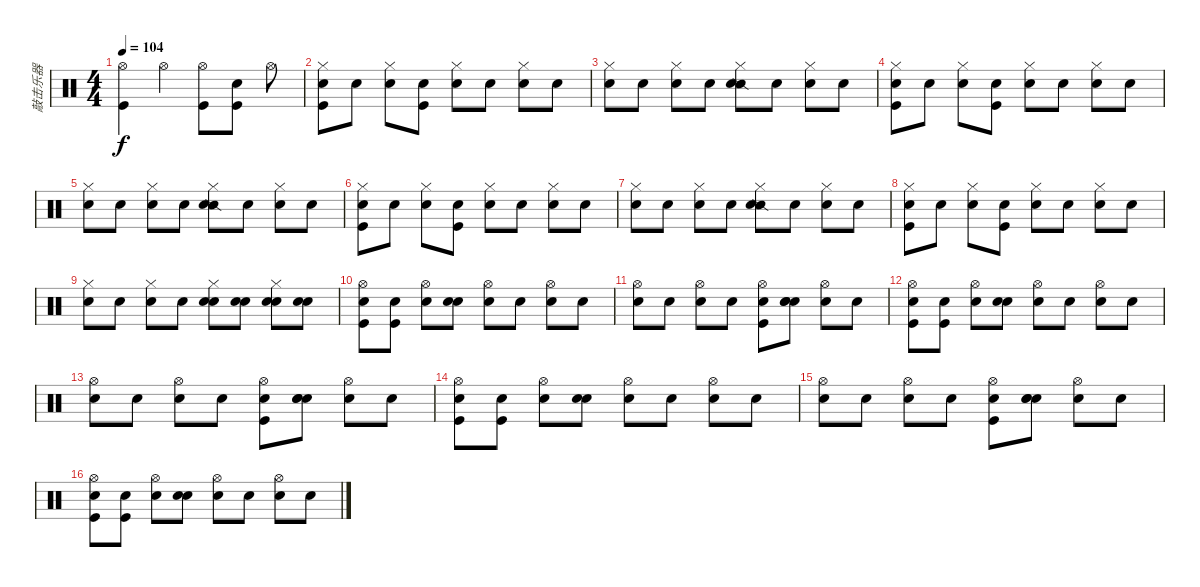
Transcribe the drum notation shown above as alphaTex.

\track ("敲击乐器" "敲击乐器") {instrument percussion}
\staff {score}
\articulation defaults
\ts (4 4)
\tempo 104
\clef neutral
\ks c
("Hi-Hat (open)" "Kick (hit)").4{dy f} "Hi-Hat (open)".4 ("Hi-Hat (open)" "Kick (hit)").8 ("Snare (hit) 2" "Kick (hit)").8 "Hi-Hat (open)".8 |
("Hi-Hat (closed)" "Snare (hit)" "Kick (hit)").8 "Snare (hit)".8 ("Hi-Hat (closed)" "Snare (hit)").8 ("Snare (hit)" "Kick (hit)").8 ("Hi-Hat (closed)" "Snare (hit)").8 "Snare (hit)".8 ("Hi-Hat (closed)" "Snare (hit)").8 "Snare (hit)".8 |
("Hi-Hat (closed)" "Snare (hit)").8 "Snare (hit)".8 ("Hi-Hat (closed)" "Snare (hit)").8 "Snare (hit)".8 ("Snare (side stick) 2" "Hi-Hat (closed)" "Snare (hit)").8 "Snare (hit)".8 ("Hi-Hat (closed)" "Snare (hit)").8 "Snare (hit)".8 |
("Hi-Hat (closed)" "Snare (hit)" "Kick (hit)").8 "Snare (hit)".8 ("Hi-Hat (closed)" "Snare (hit)").8 ("Snare (hit)" "Kick (hit)").8 ("Hi-Hat (closed)" "Snare (hit)").8 "Snare (hit)".8 ("Hi-Hat (closed)" "Snare (hit)").8 "Snare (hit)".8 |
("Hi-Hat (closed)" "Snare (hit)").8 "Snare (hit)".8 ("Hi-Hat (closed)" "Snare (hit)").8 "Snare (hit)".8 ("Snare (side stick) 2" "Hi-Hat (closed)" "Snare (hit)").8 "Snare (hit)".8 ("Hi-Hat (closed)" "Snare (hit)").8 "Snare (hit)".8 |
("Hi-Hat (closed)" "Snare (hit)" "Kick (hit)").8 "Snare (hit)".8 ("Hi-Hat (closed)" "Snare (hit)").8 ("Snare (hit)" "Kick (hit)").8 ("Hi-Hat (closed)" "Snare (hit)").8 "Snare (hit)".8 ("Hi-Hat (closed)" "Snare (hit)").8 "Snare (hit)".8 |
("Hi-Hat (closed)" "Snare (hit)").8 "Snare (hit)".8 ("Hi-Hat (closed)" "Snare (hit)").8 "Snare (hit)".8 ("Snare (side stick) 2" "Hi-Hat (closed)" "Snare (hit)").8 "Snare (hit)".8 ("Hi-Hat (closed)" "Snare (hit)").8 "Snare (hit)".8 |
("Hi-Hat (closed)" "Snare (hit)" "Kick (hit)").8 "Snare (hit)".8 ("Hi-Hat (closed)" "Snare (hit)").8 ("Snare (hit)" "Kick (hit)").8 ("Hi-Hat (closed)" "Snare (hit)").8 "Snare (hit)".8 ("Hi-Hat (closed)" "Snare (hit)").8 "Snare (hit)".8 |
("Hi-Hat (closed)" "Snare (hit)").8 "Snare (hit)".8 ("Hi-Hat (closed)" "Snare (hit)").8 "Snare (hit)".8 ("Electric Snare (hit)" "Hi-Hat (closed)" "Snare (hit)").8 ("Electric Snare (hit)" "Snare (hit)").8 ("Snare (hit) 2" "Hi-Hat (closed)" "Snare (hit)").8 ("Snare (hit) 2" "Snare (hit)").8 |
("Hi-Hat (open)" "Snare (hit)" "Kick (hit)").8{volume 10} ("Snare (hit)" "Kick (hit)").8 ("Hi-Hat (open)" "Snare (hit)").8 ("Snare (hit) 2" "Snare (hit)").8 ("Hi-Hat (open)" "Snare (hit)").8 "Snare (hit)".8 ("Hi-Hat (open)" "Snare (hit)").8 "Snare (hit)".8 |
("Hi-Hat (open)" "Snare (hit)").8 "Snare (hit)".8 ("Hi-Hat (open)" "Snare (hit)").8 "Snare (hit)".8 ("Hi-Hat (open)" "Snare (hit)" "Kick (hit)").8 ("Electric Snare (hit)" "Snare (hit) 2" "Snare (hit)").8 ("Hi-Hat (open)" "Snare (hit)").8 "Snare (hit)".8 |
("Hi-Hat (open)" "Snare (hit)" "Kick (hit)").8 ("Snare (hit)" "Kick (hit)").8 ("Hi-Hat (open)" "Snare (hit)").8 ("Snare (hit) 2" "Snare (hit)").8 ("Hi-Hat (open)" "Snare (hit)").8 "Snare (hit)".8 ("Hi-Hat (open)" "Snare (hit)").8 "Snare (hit)".8 |
("Hi-Hat (open)" "Snare (hit)").8 "Snare (hit)".8 ("Hi-Hat (open)" "Snare (hit)").8 "Snare (hit)".8 ("Hi-Hat (open)" "Snare (hit)" "Kick (hit)").8 ("Snare (hit) 2" "Electric Snare (hit)" "Snare (hit)").8 ("Hi-Hat (open)" "Snare (hit)").8 "Snare (hit)".8 |
("Hi-Hat (open)" "Snare (hit)" "Kick (hit)").8 ("Snare (hit)" "Kick (hit)").8 ("Hi-Hat (open)" "Snare (hit)").8 ("Snare (hit) 2" "Snare (hit)").8 ("Hi-Hat (open)" "Snare (hit)").8 "Snare (hit)".8 ("Hi-Hat (open)" "Snare (hit)").8 "Snare (hit)".8 |
("Hi-Hat (open)" "Snare (hit)").8 "Snare (hit)".8 ("Hi-Hat (open)" "Snare (hit)").8 "Snare (hit)".8 ("Hi-Hat (open)" "Snare (hit)" "Kick (hit)").8 ("Electric Snare (hit)" "Snare (hit) 2" "Snare (hit)").8 ("Hi-Hat (open)" "Snare (hit)").8 "Snare (hit)".8 |
("Hi-Hat (open)" "Snare (hit)" "Kick (hit)").8 ("Snare (hit)" "Kick (hit)").8 ("Hi-Hat (open)" "Snare (hit)").8 ("Snare (hit) 2" "Snare (hit)").8 ("Hi-Hat (open)" "Snare (hit)").8 "Snare (hit)".8 ("Hi-Hat (open)" "Snare (hit)").8 "Snare (hit)".8
